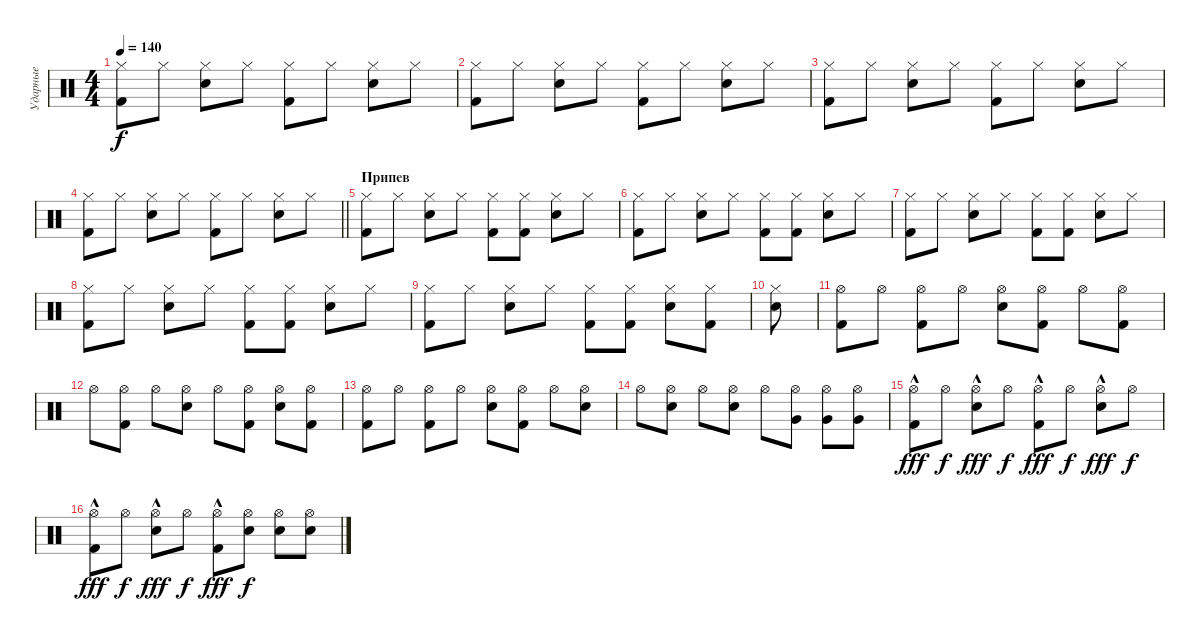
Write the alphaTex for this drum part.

\track ("Ударные" "Ударные") {instrument percussion}
\staff {score}
\articulation defaults
\ts (4 4)
\tempo 140
\clef neutral
\ks c
("Hi-Hat (closed)" "Kick (hit) 2").8{dy f} "Hi-Hat (closed)".8 ("Hi-Hat (closed)" "Electric Snare (hit)").8 "Hi-Hat (closed)".8 ("Hi-Hat (closed)" "Kick (hit) 2").8 "Hi-Hat (closed)".8 ("Hi-Hat (closed)" "Electric Snare (hit)").8 "Hi-Hat (closed)".8 |
("Hi-Hat (closed)" "Kick (hit) 2").8 "Hi-Hat (closed)".8 ("Hi-Hat (closed)" "Electric Snare (hit)").8 "Hi-Hat (closed)".8 ("Hi-Hat (closed)" "Kick (hit) 2").8 "Hi-Hat (closed)".8 ("Hi-Hat (closed)" "Electric Snare (hit)").8 "Hi-Hat (closed)".8 |
("Hi-Hat (closed)" "Kick (hit) 2").8 "Hi-Hat (closed)".8 ("Hi-Hat (closed)" "Electric Snare (hit)").8 "Hi-Hat (closed)".8 ("Hi-Hat (closed)" "Kick (hit) 2").8 "Hi-Hat (closed)".8 ("Hi-Hat (closed)" "Electric Snare (hit)").8 "Hi-Hat (closed)".8 |
\barLineRight lightlight
("Hi-Hat (closed)" "Kick (hit) 2").8 "Hi-Hat (closed)".8 ("Hi-Hat (closed)" "Electric Snare (hit)").8 "Hi-Hat (closed)".8 ("Hi-Hat (closed)" "Kick (hit) 2").8 "Hi-Hat (closed)".8 ("Hi-Hat (closed)" "Electric Snare (hit)").8 "Hi-Hat (closed)".8 |
\section ("" "Припев")
("Hi-Hat (closed)" "Kick (hit) 2").8 "Hi-Hat (closed)".8 ("Hi-Hat (closed)" "Electric Snare (hit)").8 "Hi-Hat (closed)".8 ("Hi-Hat (closed)" "Kick (hit) 2").8 ("Hi-Hat (closed)" "Kick (hit) 2").8 ("Hi-Hat (closed)" "Electric Snare (hit)").8 "Hi-Hat (closed)".8 |
("Hi-Hat (closed)" "Kick (hit) 2").8 "Hi-Hat (closed)".8 ("Hi-Hat (closed)" "Electric Snare (hit)").8 "Hi-Hat (closed)".8 ("Hi-Hat (closed)" "Kick (hit) 2").8 ("Hi-Hat (closed)" "Kick (hit) 2").8 ("Hi-Hat (closed)" "Electric Snare (hit)").8 "Hi-Hat (closed)".8 |
("Hi-Hat (closed)" "Kick (hit) 2").8 "Hi-Hat (closed)".8 ("Hi-Hat (closed)" "Electric Snare (hit)").8 "Hi-Hat (closed)".8 ("Hi-Hat (closed)" "Kick (hit) 2").8 ("Hi-Hat (closed)" "Kick (hit) 2").8 ("Hi-Hat (closed)" "Electric Snare (hit)").8 "Hi-Hat (closed)".8 |
("Hi-Hat (closed)" "Kick (hit) 2").8 "Hi-Hat (closed)".8 ("Hi-Hat (closed)" "Electric Snare (hit)").8 "Hi-Hat (closed)".8 ("Hi-Hat (closed)" "Kick (hit) 2").8 ("Hi-Hat (closed)" "Kick (hit) 2").8 ("Hi-Hat (closed)" "Electric Snare (hit)").8 "Hi-Hat (closed)".8 |
("Hi-Hat (closed)" "Kick (hit) 2").8 "Hi-Hat (closed)".8 ("Hi-Hat (closed)" "Electric Snare (hit)").8 "Hi-Hat (closed)".8 ("Hi-Hat (closed)" "Kick (hit) 2").8 ("Hi-Hat (closed)" "Kick (hit) 2").8 ("Hi-Hat (closed)" "Electric Snare (hit)").8 ("Hi-Hat (closed)" "Kick (hit) 2").8 |
("Hi-Hat (closed)" "Electric Snare (hit)").8 |
("Hi-Hat (open)" "Kick (hit) 2").8 "Hi-Hat (open)".8 ("Hi-Hat (open)" "Kick (hit) 2").8 "Hi-Hat (open)".8 ("Hi-Hat (open)" "Electric Snare (hit)").8 ("Hi-Hat (open)" "Kick (hit) 2").8 "Hi-Hat (open)".8 ("Hi-Hat (open)" "Kick (hit) 2").8 |
"Hi-Hat (open)".8 ("Hi-Hat (open)" "Kick (hit) 2").8 "Hi-Hat (open)".8 ("Hi-Hat (open)" "Electric Snare (hit)").8 "Hi-Hat (open)".8 ("Hi-Hat (open)" "Kick (hit) 2").8 ("Hi-Hat (open)" "Electric Snare (hit)").8 ("Hi-Hat (open)" "Kick (hit) 2").8 |
("Hi-Hat (open)" "Kick (hit) 2").8 "Hi-Hat (open)".8 ("Hi-Hat (open)" "Kick (hit) 2").8 "Hi-Hat (open)".8 ("Hi-Hat (open)" "Electric Snare (hit)").8 ("Hi-Hat (open)" "Kick (hit) 2").8 "Hi-Hat (open)".8 ("Hi-Hat (open)" "Electric Snare (hit)").8 |
"Hi-Hat (open)".8 ("Hi-Hat (open)" "Electric Snare (hit)").8 "Hi-Hat (open)".8 ("Hi-Hat (open)" "Electric Snare (hit)").8 "Hi-Hat (open)".8 ("Hi-Hat (open)" "Very Low Tom (hit)").8 ("Hi-Hat (open)" "Very Low Tom (hit)").8 ("Hi-Hat (open)" "Very Low Tom (hit)").8 |
("Hi-Hat (open)"{hac} "Kick (hit) 2").8{dy fff} "Hi-Hat (open)".8{dy f} ("Hi-Hat (open)"{hac} "Electric Snare (hit)").8{dy fff} "Hi-Hat (open)".8{dy f} ("Hi-Hat (open)"{hac} "Kick (hit) 2").8{dy fff} "Hi-Hat (open)".8{dy f} ("Hi-Hat (open)"{hac} "Electric Snare (hit)").8{dy fff} "Hi-Hat (open)".8{dy f} |
("Hi-Hat (open)"{hac} "Kick (hit) 2").8{dy fff} "Hi-Hat (open)".8{dy f} ("Hi-Hat (open)"{hac} "Electric Snare (hit)").8{dy fff} "Hi-Hat (open)".8{dy f} ("Hi-Hat (open)"{hac} "Kick (hit) 2").8{dy fff} ("Hi-Hat (open)" "Electric Snare (hit)").8{dy f} ("Hi-Hat (open)" "Electric Snare (hit)").8 ("Hi-Hat (open)" "Electric Snare (hit)").8
